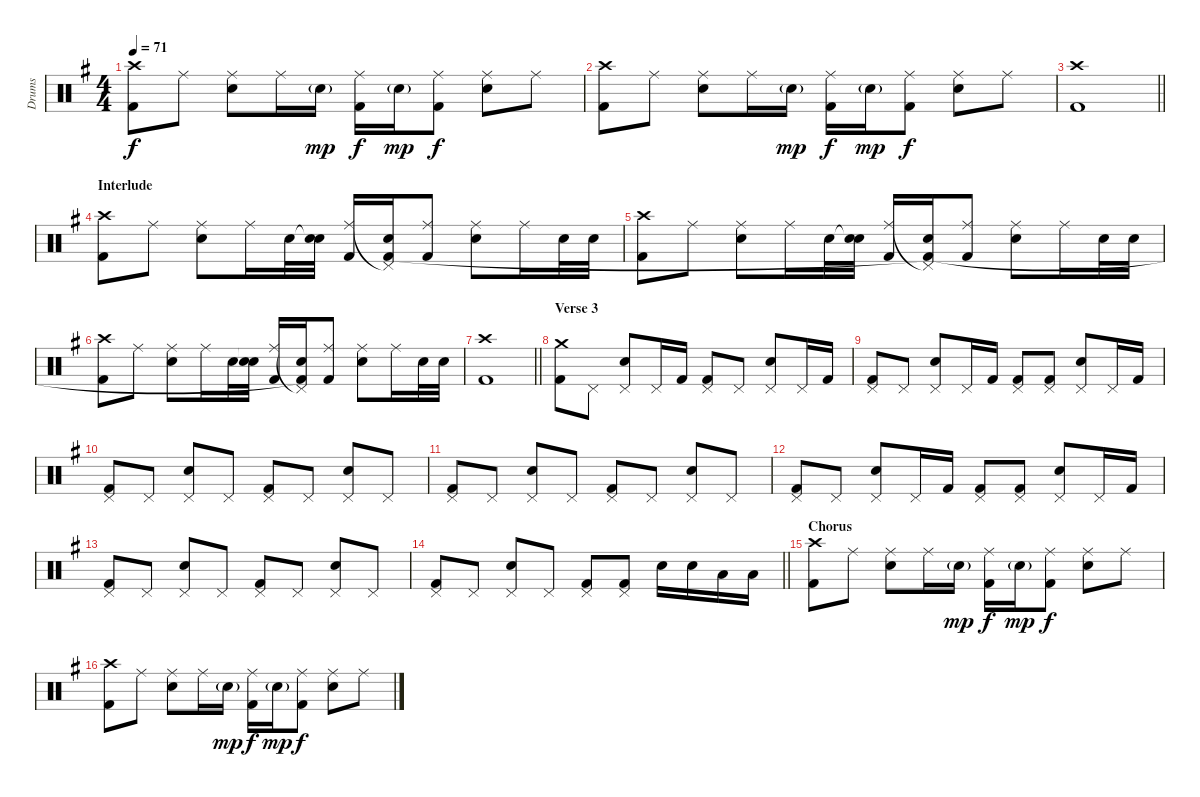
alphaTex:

\track ("Drums" "Drums") {instrument percussion}
\staff {score}
\articulation defaults
\ts (4 4)
\tempo 71
\clef neutral
\ks eminor
("Crash high (hit)" "Kick (hit) 2").8{dy f} "Ride (middle)".8 ("Ride (middle)" "Electric Snare (hit)").8 "Ride (middle)".16 "Electric Snare (hit)"{g}.16{dy mp} ("Ride (middle)" "Kick (hit) 2").16{dy f} "Electric Snare (hit)"{g}.16{dy mp} ("Ride (middle)" "Kick (hit) 2").8{dy f} ("Ride (middle)" "Electric Snare (hit)").8 "Ride (middle)".8 |
("Crash high (hit)" "Kick (hit) 2").8 "Ride (middle)".8 ("Ride (middle)" "Electric Snare (hit)").8 "Ride (middle)".16 "Electric Snare (hit)"{g}.16{dy mp} ("Ride (middle)" "Kick (hit) 2").16{dy f} "Electric Snare (hit)"{g}.16{dy mp} ("Ride (middle)" "Kick (hit) 2").8{dy f} ("Ride (middle)" "Electric Snare (hit)").8 "Ride (middle)".8 |
\barLineRight lightlight
("Crash high (hit)" "Kick (hit) 2").1 |
\section ("" "Interlude")
("Crash high (hit)" "Kick (hit) 2").8 "Ride (middle)".8 ("Ride (middle)" "Electric Snare (hit)").8 "Ride (middle)".16 "Electric Snare (hit)".32 ("Snare (hit)"{t} "Electric Snare (hit)").32 ("Ride (middle)" "Kick (hit) 2").16 ("Pedal Hi-Hat (hit)"{t} "Electric Snare (hit)" "Kick (hit) 2").16 ("Ride (middle)" "Kick (hit) 2").8 ("Ride (middle)" "Electric Snare (hit)").8 "Ride (middle)".16 "Electric Snare (hit)".32 "Electric Snare (hit)".32 |
("Crash high (hit)" "Kick (hit) 2").8 "Ride (middle)".8 ("Ride (middle)" "Electric Snare (hit)").8 "Ride (middle)".16 "Electric Snare (hit)".32 ("Snare (hit)"{t} "Electric Snare (hit)").32 ("Ride (middle)" "Kick (hit) 2").16 ("Pedal Hi-Hat (hit)"{t} "Electric Snare (hit)" "Kick (hit) 2"{t}).16 ("Ride (middle)" "Kick (hit) 2").8 ("Ride (middle)" "Electric Snare (hit)").8 "Ride (middle)".16 "Electric Snare (hit)".32 "Electric Snare (hit)".32 |
("Crash high (hit)" "Kick (hit) 2").8 "Ride (middle)".8 ("Ride (middle)" "Electric Snare (hit)").8 "Ride (middle)".16 "Electric Snare (hit)".32 ("Snare (hit)"{t} "Electric Snare (hit)").32 ("Ride (middle)" "Kick (hit) 2").16 ("Pedal Hi-Hat (hit)"{t} "Electric Snare (hit)" "Kick (hit) 2"{t}).16 ("Ride (middle)" "Kick (hit) 2").8 ("Ride (middle)" "Electric Snare (hit)").8 "Ride (middle)".16 "Electric Snare (hit)".32 "Electric Snare (hit)".32 |
\barLineRight lightlight
("Crash high (hit)" "Kick (hit) 2").1 |
\section ("" "Verse 3")
("Crash medium (hit)" "Kick (hit) 2").8 "Pedal Hi-Hat (hit)".8 ("Pedal Hi-Hat (hit)" "Electric Snare (hit)").8 "Pedal Hi-Hat (hit)".16 "Kick (hit) 2".16 ("Pedal Hi-Hat (hit)" "Kick (hit) 2").8 "Pedal Hi-Hat (hit)".8 ("Pedal Hi-Hat (hit)" "Electric Snare (hit)").8 "Pedal Hi-Hat (hit)".16 "Kick (hit) 2".16 |
("Pedal Hi-Hat (hit)" "Kick (hit) 2").8 "Pedal Hi-Hat (hit)".8 ("Pedal Hi-Hat (hit)" "Electric Snare (hit)").8 "Pedal Hi-Hat (hit)".16 "Kick (hit) 2".16 ("Pedal Hi-Hat (hit)" "Kick (hit) 2").8 ("Pedal Hi-Hat (hit)" "Kick (hit) 2").8 ("Pedal Hi-Hat (hit)" "Electric Snare (hit)").8 "Pedal Hi-Hat (hit)".16 "Kick (hit) 2".16 |
("Pedal Hi-Hat (hit)" "Kick (hit) 2").8 "Pedal Hi-Hat (hit)".8 ("Pedal Hi-Hat (hit)" "Electric Snare (hit)").8 "Pedal Hi-Hat (hit)".8 ("Pedal Hi-Hat (hit)" "Kick (hit) 2").8 "Pedal Hi-Hat (hit)".8 ("Pedal Hi-Hat (hit)" "Electric Snare (hit)").8 "Pedal Hi-Hat (hit)".8 |
("Pedal Hi-Hat (hit)" "Kick (hit) 2").8 "Pedal Hi-Hat (hit)".8 ("Pedal Hi-Hat (hit)" "Electric Snare (hit)").8 "Pedal Hi-Hat (hit)".8 ("Pedal Hi-Hat (hit)" "Kick (hit) 2").8 "Pedal Hi-Hat (hit)".8 ("Pedal Hi-Hat (hit)" "Electric Snare (hit)").8 "Pedal Hi-Hat (hit)".8 |
("Pedal Hi-Hat (hit)" "Kick (hit) 2").8 "Pedal Hi-Hat (hit)".8 ("Pedal Hi-Hat (hit)" "Electric Snare (hit)").8 "Pedal Hi-Hat (hit)".16 "Kick (hit) 2".16 ("Pedal Hi-Hat (hit)" "Kick (hit) 2").8 ("Pedal Hi-Hat (hit)" "Kick (hit) 2").8 ("Pedal Hi-Hat (hit)" "Electric Snare (hit)").8 "Pedal Hi-Hat (hit)".16 "Kick (hit) 2".16 |
("Pedal Hi-Hat (hit)" "Kick (hit) 2").8 "Pedal Hi-Hat (hit)".8 ("Pedal Hi-Hat (hit)" "Electric Snare (hit)").8 "Pedal Hi-Hat (hit)".8 ("Pedal Hi-Hat (hit)" "Kick (hit) 2").8 "Pedal Hi-Hat (hit)".8 ("Pedal Hi-Hat (hit)" "Electric Snare (hit)").8 "Pedal Hi-Hat (hit)".8 |
\barLineRight lightlight
("Pedal Hi-Hat (hit)" "Kick (hit) 2").8 "Pedal Hi-Hat (hit)".8 ("Pedal Hi-Hat (hit)" "Electric Snare (hit)").8 "Pedal Hi-Hat (hit)".8 ("Pedal Hi-Hat (hit)" "Kick (hit) 2").8 ("Pedal Hi-Hat (hit)" "Kick (hit) 2").8 "Electric Snare (hit)".16 "Electric Snare (hit)".16 "Low Tom (hit)".16 "Low Tom (hit)".16 |
\section ("" "Chorus")
("Crash high (hit)" "Kick (hit) 2").8 "Ride (middle)".8 ("Ride (middle)" "Electric Snare (hit)").8 "Ride (middle)".16 "Electric Snare (hit)"{g}.16{dy mp} ("Ride (middle)" "Kick (hit) 2").16{dy f} "Electric Snare (hit)"{g}.16{dy mp} ("Ride (middle)" "Kick (hit) 2").8{dy f} ("Ride (middle)" "Electric Snare (hit)").8 "Ride (middle)".8 |
("Crash high (hit)" "Kick (hit) 2").8 "Ride (middle)".8 ("Ride (middle)" "Electric Snare (hit)").8 "Ride (middle)".16 "Electric Snare (hit)"{g}.16{dy mp} ("Ride (middle)" "Kick (hit) 2").16{dy f} "Electric Snare (hit)"{g}.16{dy mp} ("Ride (middle)" "Kick (hit) 2").8{dy f} ("Ride (middle)" "Electric Snare (hit)").8 "Ride (middle)".8
